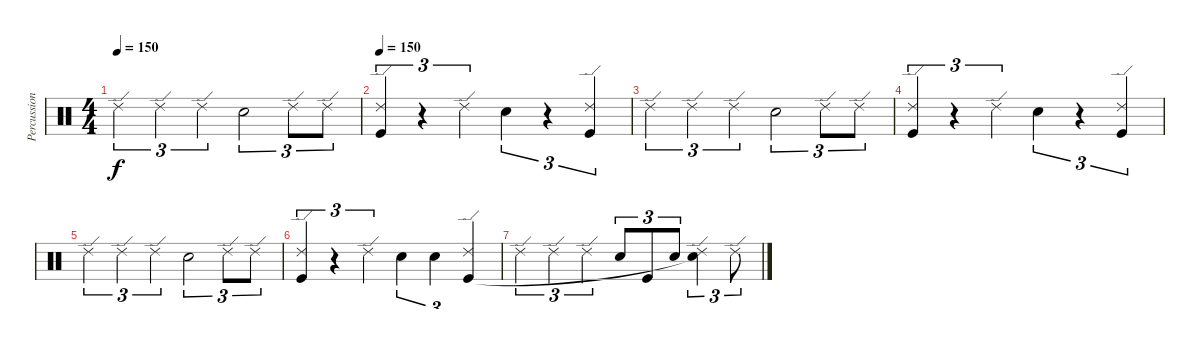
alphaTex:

\track ("Percussioni" "Percussion") {instrument percussion}
\staff {score}
\articulation defaults
\ts (4 4)
\tempo 150
\clef neutral
\ks c "Ride (edge) 2".4{tu (3 2) dy f} "Ride (edge) 2".4{tu (3 2)} "Ride (edge) 2".4{tu (3 2)} "Electric Snare (hit)".2{tu (3 2)} "Ride (edge) 2".8{tu (3 2)} "Ride (edge) 2".8{tu (3 2)}
|
\tempo 150
("Ride (edge) 2" "Kick (hit)").4{tu (3 2)} r.4{tu (3 2)} "Ride (edge) 2".4{tu (3 2)} "Electric Snare (hit)".4{tu (3 2)} r.4{tu (3 2)} ("Ride (edge) 2" "Kick (hit)").4{tu (3 2)} |
"Ride (edge) 2".4{tu (3 2)} "Ride (edge) 2".4{tu (3 2)} "Ride (edge) 2".4{tu (3 2)} "Electric Snare (hit)".2{tu (3 2)} "Ride (edge) 2".8{tu (3 2)} "Ride (edge) 2".8{tu (3 2)} |
("Ride (edge) 2" "Kick (hit)").4{tu (3 2)} r.4{tu (3 2)} "Ride (edge) 2".4{tu (3 2)} "Electric Snare (hit)".4{tu (3 2)} r.4{tu (3 2)} ("Ride (edge) 2" "Kick (hit)").4{tu (3 2)} |
"Ride (edge) 2".4{tu (3 2)} "Ride (edge) 2".4{tu (3 2)} "Ride (edge) 2".4{tu (3 2)} "Electric Snare (hit)".2{tu (3 2)} "Ride (edge) 2".8{tu (3 2)} "Ride (edge) 2".8{tu (3 2)} |
("Ride (edge) 2" "Kick (hit)").4{tu (3 2)} r.4{tu (3 2)} "Ride (edge) 2".4{tu (3 2)} "Electric Snare (hit)".4{tu (3 2)} "Electric Snare (hit)".4{tu (3 2)} ("Ride (edge) 2" "Kick (hit)").4{tu (3 2)} |
"Ride (edge) 2".4{tu (3 2)} "Ride (edge) 2".4{tu (3 2)} "Ride (edge) 2".4{tu (3 2)} "Electric Snare (hit)".8{tu (3 2)} "Kick (hit)".8{tu (3 2)} "Electric Snare (hit)".8{tu (3 2)} ("Ride (edge) 2" "Electric Snare (hit)"{t}).4{tu (3 2)} "Ride (edge) 2".8{tu (3 2)}
